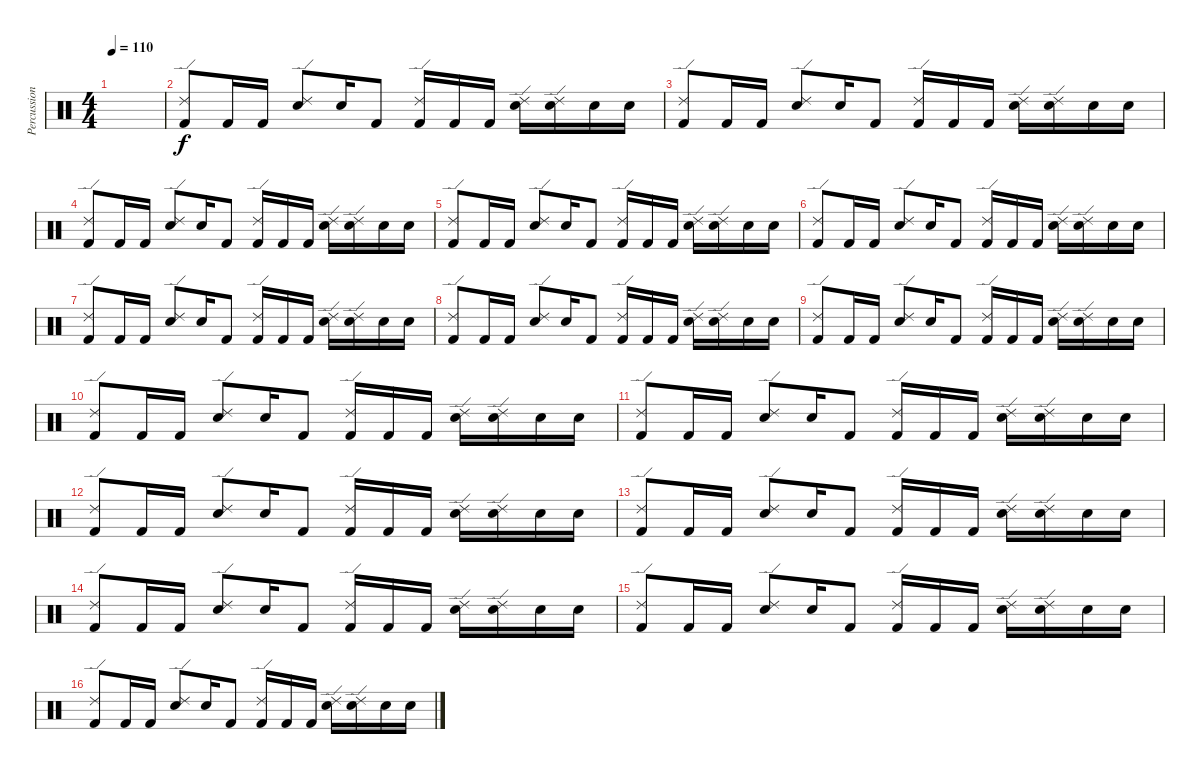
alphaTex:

\track ("Percussion" "Percussion") {instrument percussion}
\staff {score}
\articulation defaults
\ts (4 4)
\tempo 110
\clef neutral
\ks c
|
("Ride (edge) 2" "Kick (hit) 2").8 "Kick (hit) 2".16 "Kick (hit) 2".16 ("Ride (edge) 2" "Electric Snare (hit)").8 "Electric Snare (hit)".16 "Kick (hit) 2".8 ("Ride (edge) 2" "Kick (hit) 2").16 "Kick (hit) 2".16 "Kick (hit) 2".16 ("Ride (edge) 2" "Electric Snare (hit)").16 ("Ride (edge) 2" "Electric Snare (hit)").16 "Electric Snare (hit)".16 "Electric Snare (hit)".16 |
("Ride (edge) 2" "Kick (hit) 2").8 "Kick (hit) 2".16 "Kick (hit) 2".16 ("Ride (edge) 2" "Electric Snare (hit)").8 "Electric Snare (hit)".16 "Kick (hit) 2".8 ("Ride (edge) 2" "Kick (hit) 2").16 "Kick (hit) 2".16 "Kick (hit) 2".16 ("Ride (edge) 2" "Electric Snare (hit)").16 ("Ride (edge) 2" "Electric Snare (hit)").16 "Electric Snare (hit)".16 "Electric Snare (hit)".16 |
("Ride (edge) 2" "Kick (hit) 2").8 "Kick (hit) 2".16 "Kick (hit) 2".16 ("Ride (edge) 2" "Electric Snare (hit)").8 "Electric Snare (hit)".16 "Kick (hit) 2".8 ("Ride (edge) 2" "Kick (hit) 2").16 "Kick (hit) 2".16 "Kick (hit) 2".16 ("Ride (edge) 2" "Electric Snare (hit)").16 ("Ride (edge) 2" "Electric Snare (hit)").16 "Electric Snare (hit)".16 "Electric Snare (hit)".16 |
("Ride (edge) 2" "Kick (hit) 2").8 "Kick (hit) 2".16 "Kick (hit) 2".16 ("Ride (edge) 2" "Electric Snare (hit)").8 "Electric Snare (hit)".16 "Kick (hit) 2".8 ("Ride (edge) 2" "Kick (hit) 2").16 "Kick (hit) 2".16 "Kick (hit) 2".16 ("Ride (edge) 2" "Electric Snare (hit)").16 ("Ride (edge) 2" "Electric Snare (hit)").16 "Electric Snare (hit)".16 "Electric Snare (hit)".16 |
("Ride (edge) 2" "Kick (hit) 2").8 "Kick (hit) 2".16 "Kick (hit) 2".16 ("Ride (edge) 2" "Electric Snare (hit)").8 "Electric Snare (hit)".16 "Kick (hit) 2".8 ("Ride (edge) 2" "Kick (hit) 2").16 "Kick (hit) 2".16 "Kick (hit) 2".16 ("Ride (edge) 2" "Electric Snare (hit)").16 ("Ride (edge) 2" "Electric Snare (hit)").16 "Electric Snare (hit)".16 "Electric Snare (hit)".16 |
("Ride (edge) 2" "Kick (hit) 2").8 "Kick (hit) 2".16 "Kick (hit) 2".16 ("Ride (edge) 2" "Electric Snare (hit)").8 "Electric Snare (hit)".16 "Kick (hit) 2".8 ("Ride (edge) 2" "Kick (hit) 2").16 "Kick (hit) 2".16 "Kick (hit) 2".16 ("Ride (edge) 2" "Electric Snare (hit)").16 ("Ride (edge) 2" "Electric Snare (hit)").16 "Electric Snare (hit)".16 "Electric Snare (hit)".16 |
("Ride (edge) 2" "Kick (hit) 2").8 "Kick (hit) 2".16 "Kick (hit) 2".16 ("Ride (edge) 2" "Electric Snare (hit)").8 "Electric Snare (hit)".16 "Kick (hit) 2".8 ("Ride (edge) 2" "Kick (hit) 2").16 "Kick (hit) 2".16 "Kick (hit) 2".16 ("Ride (edge) 2" "Electric Snare (hit)").16 ("Ride (edge) 2" "Electric Snare (hit)").16 "Electric Snare (hit)".16 "Electric Snare (hit)".16 |
("Ride (edge) 2" "Kick (hit) 2").8 "Kick (hit) 2".16 "Kick (hit) 2".16 ("Ride (edge) 2" "Electric Snare (hit)").8 "Electric Snare (hit)".16 "Kick (hit) 2".8 ("Ride (edge) 2" "Kick (hit) 2").16 "Kick (hit) 2".16 "Kick (hit) 2".16 ("Ride (edge) 2" "Electric Snare (hit)").16 ("Ride (edge) 2" "Electric Snare (hit)").16 "Electric Snare (hit)".16 "Electric Snare (hit)".16 |
("Ride (edge) 2" "Kick (hit) 2").8 "Kick (hit) 2".16 "Kick (hit) 2".16 ("Ride (edge) 2" "Electric Snare (hit)").8 "Electric Snare (hit)".16 "Kick (hit) 2".8 ("Ride (edge) 2" "Kick (hit) 2").16 "Kick (hit) 2".16 "Kick (hit) 2".16 ("Ride (edge) 2" "Electric Snare (hit)").16 ("Ride (edge) 2" "Electric Snare (hit)").16 "Electric Snare (hit)".16 "Electric Snare (hit)".16 |
("Ride (edge) 2" "Kick (hit) 2").8 "Kick (hit) 2".16 "Kick (hit) 2".16 ("Ride (edge) 2" "Electric Snare (hit)").8 "Electric Snare (hit)".16 "Kick (hit) 2".8 ("Ride (edge) 2" "Kick (hit) 2").16 "Kick (hit) 2".16 "Kick (hit) 2".16 ("Ride (edge) 2" "Electric Snare (hit)").16 ("Ride (edge) 2" "Electric Snare (hit)").16 "Electric Snare (hit)".16 "Electric Snare (hit)".16 |
("Ride (edge) 2" "Kick (hit) 2").8 "Kick (hit) 2".16 "Kick (hit) 2".16 ("Ride (edge) 2" "Electric Snare (hit)").8 "Electric Snare (hit)".16 "Kick (hit) 2".8 ("Ride (edge) 2" "Kick (hit) 2").16 "Kick (hit) 2".16 "Kick (hit) 2".16 ("Ride (edge) 2" "Electric Snare (hit)").16 ("Ride (edge) 2" "Electric Snare (hit)").16 "Electric Snare (hit)".16 "Electric Snare (hit)".16 |
("Ride (edge) 2" "Kick (hit) 2").8 "Kick (hit) 2".16 "Kick (hit) 2".16 ("Ride (edge) 2" "Electric Snare (hit)").8 "Electric Snare (hit)".16 "Kick (hit) 2".8 ("Ride (edge) 2" "Kick (hit) 2").16 "Kick (hit) 2".16 "Kick (hit) 2".16 ("Ride (edge) 2" "Electric Snare (hit)").16 ("Ride (edge) 2" "Electric Snare (hit)").16 "Electric Snare (hit)".16 "Electric Snare (hit)".16 |
("Ride (edge) 2" "Kick (hit) 2").8 "Kick (hit) 2".16 "Kick (hit) 2".16 ("Ride (edge) 2" "Electric Snare (hit)").8 "Electric Snare (hit)".16 "Kick (hit) 2".8 ("Ride (edge) 2" "Kick (hit) 2").16 "Kick (hit) 2".16 "Kick (hit) 2".16 ("Ride (edge) 2" "Electric Snare (hit)").16 ("Ride (edge) 2" "Electric Snare (hit)").16 "Electric Snare (hit)".16 "Electric Snare (hit)".16 |
("Ride (edge) 2" "Kick (hit) 2").8 "Kick (hit) 2".16 "Kick (hit) 2".16 ("Ride (edge) 2" "Electric Snare (hit)").8 "Electric Snare (hit)".16 "Kick (hit) 2".8 ("Ride (edge) 2" "Kick (hit) 2").16 "Kick (hit) 2".16 "Kick (hit) 2".16 ("Ride (edge) 2" "Electric Snare (hit)").16 ("Ride (edge) 2" "Electric Snare (hit)").16 "Electric Snare (hit)".16 "Electric Snare (hit)".16 |
("Ride (edge) 2" "Kick (hit) 2").8 "Kick (hit) 2".16 "Kick (hit) 2".16 ("Ride (edge) 2" "Electric Snare (hit)").8 "Electric Snare (hit)".16 "Kick (hit) 2".8 ("Ride (edge) 2" "Kick (hit) 2").16 "Kick (hit) 2".16 "Kick (hit) 2".16 ("Ride (edge) 2" "Electric Snare (hit)").16 ("Ride (edge) 2" "Electric Snare (hit)").16 "Electric Snare (hit)".16 "Electric Snare (hit)".16
